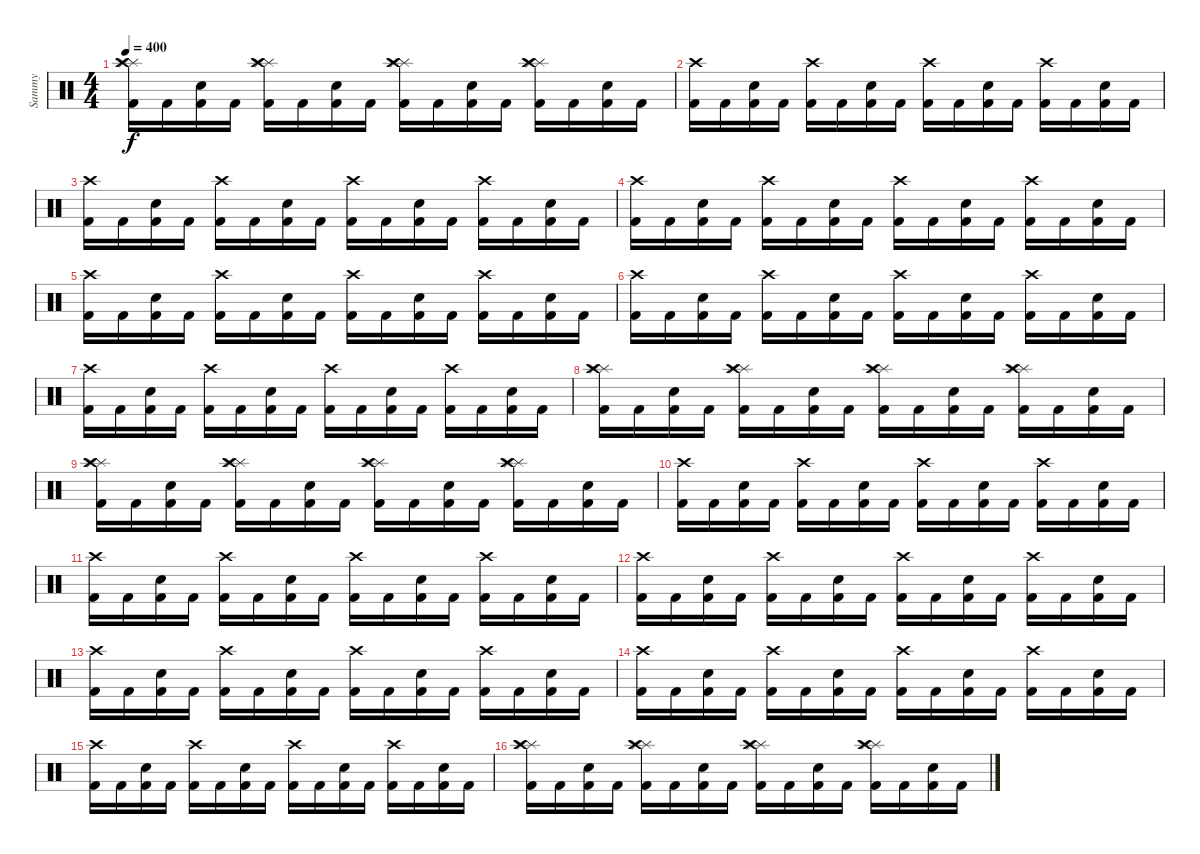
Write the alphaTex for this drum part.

\track ("Sammy" "Sammy") {instrument percussion}
\staff {score}
\articulation defaults
\ts (4 4)
\tempo 400
\clef neutral
\ks c
("Splash (hit)" "Splash (hit)" "Crash high (hit)" "Kick (hit) 2").16{dy f} "Kick (hit) 2".16 ("Electric Snare (hit)" "Kick (hit) 2").16 "Kick (hit) 2".16 ("Splash (hit)" "Splash (hit)" "Crash high (hit)" "Kick (hit) 2").16 "Kick (hit) 2".16 ("Electric Snare (hit)" "Kick (hit) 2").16 "Kick (hit) 2".16 ("Splash (hit)" "Splash (hit)" "Crash high (hit)" "Kick (hit) 2").16 "Kick (hit) 2".16 ("Electric Snare (hit)" "Kick (hit) 2").16 "Kick (hit) 2".16 ("Splash (hit)" "Splash (hit)" "Crash high (hit)" "Kick (hit) 2").16 "Kick (hit) 2".16 ("Electric Snare (hit)" "Kick (hit) 2").16 "Kick (hit) 2".16 |
("Crash high (hit)" "Kick (hit) 2").16 "Kick (hit) 2".16 ("Electric Snare (hit)" "Kick (hit) 2").16 "Kick (hit) 2".16 ("Crash high (hit)" "Kick (hit) 2").16 "Kick (hit) 2".16 ("Electric Snare (hit)" "Kick (hit) 2").16 "Kick (hit) 2".16 ("Crash high (hit)" "Kick (hit) 2").16 "Kick (hit) 2".16 ("Electric Snare (hit)" "Kick (hit) 2").16 "Kick (hit) 2".16 ("Crash high (hit)" "Kick (hit) 2").16 "Kick (hit) 2".16 ("Electric Snare (hit)" "Kick (hit) 2").16 "Kick (hit) 2".16 |
("Crash high (hit)" "Kick (hit) 2").16 "Kick (hit) 2".16 ("Electric Snare (hit)" "Kick (hit) 2").16 "Kick (hit) 2".16 ("Crash high (hit)" "Kick (hit) 2").16 "Kick (hit) 2".16 ("Electric Snare (hit)" "Kick (hit) 2").16 "Kick (hit) 2".16 ("Crash high (hit)" "Kick (hit) 2").16 "Kick (hit) 2".16 ("Electric Snare (hit)" "Kick (hit) 2").16 "Kick (hit) 2".16 ("Crash high (hit)" "Kick (hit) 2").16 "Kick (hit) 2".16 ("Electric Snare (hit)" "Kick (hit) 2").16 "Kick (hit) 2".16 |
("Crash high (hit)" "Kick (hit) 2").16 "Kick (hit) 2".16 ("Electric Snare (hit)" "Kick (hit) 2").16 "Kick (hit) 2".16 ("Crash high (hit)" "Kick (hit) 2").16 "Kick (hit) 2".16 ("Electric Snare (hit)" "Kick (hit) 2").16 "Kick (hit) 2".16 ("Crash high (hit)" "Kick (hit) 2").16 "Kick (hit) 2".16 ("Electric Snare (hit)" "Kick (hit) 2").16 "Kick (hit) 2".16 ("Crash high (hit)" "Kick (hit) 2").16 "Kick (hit) 2".16 ("Electric Snare (hit)" "Kick (hit) 2").16 "Kick (hit) 2".16 |
("Crash high (hit)" "Kick (hit) 2").16 "Kick (hit) 2".16 ("Electric Snare (hit)" "Kick (hit) 2").16 "Kick (hit) 2".16 ("Crash high (hit)" "Kick (hit) 2").16 "Kick (hit) 2".16 ("Electric Snare (hit)" "Kick (hit) 2").16 "Kick (hit) 2".16 ("Crash high (hit)" "Kick (hit) 2").16 "Kick (hit) 2".16 ("Electric Snare (hit)" "Kick (hit) 2").16 "Kick (hit) 2".16 ("Crash high (hit)" "Kick (hit) 2").16 "Kick (hit) 2".16 ("Electric Snare (hit)" "Kick (hit) 2").16 "Kick (hit) 2".16 |
("Crash high (hit)" "Kick (hit) 2").16 "Kick (hit) 2".16 ("Electric Snare (hit)" "Kick (hit) 2").16 "Kick (hit) 2".16 ("Crash high (hit)" "Kick (hit) 2").16 "Kick (hit) 2".16 ("Electric Snare (hit)" "Kick (hit) 2").16 "Kick (hit) 2".16 ("Crash high (hit)" "Kick (hit) 2").16 "Kick (hit) 2".16 ("Electric Snare (hit)" "Kick (hit) 2").16 "Kick (hit) 2".16 ("Crash high (hit)" "Kick (hit) 2").16 "Kick (hit) 2".16 ("Electric Snare (hit)" "Kick (hit) 2").16 "Kick (hit) 2".16 |
("Crash high (hit)" "Kick (hit) 2").16 "Kick (hit) 2".16 ("Electric Snare (hit)" "Kick (hit) 2").16 "Kick (hit) 2".16 ("Crash high (hit)" "Kick (hit) 2").16 "Kick (hit) 2".16 ("Electric Snare (hit)" "Kick (hit) 2").16 "Kick (hit) 2".16 ("Crash high (hit)" "Kick (hit) 2").16 "Kick (hit) 2".16 ("Electric Snare (hit)" "Kick (hit) 2").16 "Kick (hit) 2".16 ("Crash high (hit)" "Kick (hit) 2").16 "Kick (hit) 2".16 ("Electric Snare (hit)" "Kick (hit) 2").16 "Kick (hit) 2".16 |
("Splash (hit)" "Splash (hit)" "Crash high (hit)" "Kick (hit) 2").16 "Kick (hit) 2".16 ("Electric Snare (hit)" "Kick (hit) 2").16 "Kick (hit) 2".16 ("Splash (hit)" "Splash (hit)" "Crash high (hit)" "Kick (hit) 2").16 "Kick (hit) 2".16 ("Electric Snare (hit)" "Kick (hit) 2").16 "Kick (hit) 2".16 ("Splash (hit)" "Splash (hit)" "Crash high (hit)" "Kick (hit) 2").16 "Kick (hit) 2".16 ("Electric Snare (hit)" "Kick (hit) 2").16 "Kick (hit) 2".16 ("Splash (hit)" "Splash (hit)" "Crash high (hit)" "Kick (hit) 2").16 "Kick (hit) 2".16 ("Electric Snare (hit)" "Kick (hit) 2").16 "Kick (hit) 2".16 |
("Splash (hit)" "Splash (hit)" "Crash high (hit)" "Kick (hit) 2").16 "Kick (hit) 2".16 ("Electric Snare (hit)" "Kick (hit) 2").16 "Kick (hit) 2".16 ("Splash (hit)" "Splash (hit)" "Crash high (hit)" "Kick (hit) 2").16 "Kick (hit) 2".16 ("Electric Snare (hit)" "Kick (hit) 2").16 "Kick (hit) 2".16 ("Splash (hit)" "Splash (hit)" "Crash high (hit)" "Kick (hit) 2").16 "Kick (hit) 2".16 ("Electric Snare (hit)" "Kick (hit) 2").16 "Kick (hit) 2".16 ("Splash (hit)" "Splash (hit)" "Crash high (hit)" "Kick (hit) 2").16 "Kick (hit) 2".16 ("Electric Snare (hit)" "Kick (hit) 2").16 "Kick (hit) 2".16 |
("Crash high (hit)" "Kick (hit) 2").16 "Kick (hit) 2".16 ("Electric Snare (hit)" "Kick (hit) 2").16 "Kick (hit) 2".16 ("Crash high (hit)" "Kick (hit) 2").16 "Kick (hit) 2".16 ("Electric Snare (hit)" "Kick (hit) 2").16 "Kick (hit) 2".16 ("Crash high (hit)" "Kick (hit) 2").16 "Kick (hit) 2".16 ("Electric Snare (hit)" "Kick (hit) 2").16 "Kick (hit) 2".16 ("Crash high (hit)" "Kick (hit) 2").16 "Kick (hit) 2".16 ("Electric Snare (hit)" "Kick (hit) 2").16 "Kick (hit) 2".16 |
("Crash high (hit)" "Kick (hit) 2").16 "Kick (hit) 2".16 ("Electric Snare (hit)" "Kick (hit) 2").16 "Kick (hit) 2".16 ("Crash high (hit)" "Kick (hit) 2").16 "Kick (hit) 2".16 ("Electric Snare (hit)" "Kick (hit) 2").16 "Kick (hit) 2".16 ("Crash high (hit)" "Kick (hit) 2").16 "Kick (hit) 2".16 ("Electric Snare (hit)" "Kick (hit) 2").16 "Kick (hit) 2".16 ("Crash high (hit)" "Kick (hit) 2").16 "Kick (hit) 2".16 ("Electric Snare (hit)" "Kick (hit) 2").16 "Kick (hit) 2".16 |
("Crash high (hit)" "Kick (hit) 2").16 "Kick (hit) 2".16 ("Electric Snare (hit)" "Kick (hit) 2").16 "Kick (hit) 2".16 ("Crash high (hit)" "Kick (hit) 2").16 "Kick (hit) 2".16 ("Electric Snare (hit)" "Kick (hit) 2").16 "Kick (hit) 2".16 ("Crash high (hit)" "Kick (hit) 2").16 "Kick (hit) 2".16 ("Electric Snare (hit)" "Kick (hit) 2").16 "Kick (hit) 2".16 ("Crash high (hit)" "Kick (hit) 2").16 "Kick (hit) 2".16 ("Electric Snare (hit)" "Kick (hit) 2").16 "Kick (hit) 2".16 |
("Crash high (hit)" "Kick (hit) 2").16 "Kick (hit) 2".16 ("Electric Snare (hit)" "Kick (hit) 2").16 "Kick (hit) 2".16 ("Crash high (hit)" "Kick (hit) 2").16 "Kick (hit) 2".16 ("Electric Snare (hit)" "Kick (hit) 2").16 "Kick (hit) 2".16 ("Crash high (hit)" "Kick (hit) 2").16 "Kick (hit) 2".16 ("Electric Snare (hit)" "Kick (hit) 2").16 "Kick (hit) 2".16 ("Crash high (hit)" "Kick (hit) 2").16 "Kick (hit) 2".16 ("Electric Snare (hit)" "Kick (hit) 2").16 "Kick (hit) 2".16 |
("Crash high (hit)" "Kick (hit) 2").16 "Kick (hit) 2".16 ("Electric Snare (hit)" "Kick (hit) 2").16 "Kick (hit) 2".16 ("Crash high (hit)" "Kick (hit) 2").16 "Kick (hit) 2".16 ("Electric Snare (hit)" "Kick (hit) 2").16 "Kick (hit) 2".16 ("Crash high (hit)" "Kick (hit) 2").16 "Kick (hit) 2".16 ("Electric Snare (hit)" "Kick (hit) 2").16 "Kick (hit) 2".16 ("Crash high (hit)" "Kick (hit) 2").16 "Kick (hit) 2".16 ("Electric Snare (hit)" "Kick (hit) 2").16 "Kick (hit) 2".16 |
("Crash high (hit)" "Kick (hit) 2").16 "Kick (hit) 2".16 ("Electric Snare (hit)" "Kick (hit) 2").16 "Kick (hit) 2".16 ("Crash high (hit)" "Kick (hit) 2").16 "Kick (hit) 2".16 ("Electric Snare (hit)" "Kick (hit) 2").16 "Kick (hit) 2".16 ("Crash high (hit)" "Kick (hit) 2").16 "Kick (hit) 2".16 ("Electric Snare (hit)" "Kick (hit) 2").16 "Kick (hit) 2".16 ("Crash high (hit)" "Kick (hit) 2").16 "Kick (hit) 2".16 ("Electric Snare (hit)" "Kick (hit) 2").16 "Kick (hit) 2".16 |
("Splash (hit)" "Splash (hit)" "Crash high (hit)" "Kick (hit) 2").16 "Kick (hit) 2".16 ("Electric Snare (hit)" "Kick (hit) 2").16 "Kick (hit) 2".16 ("Splash (hit)" "Splash (hit)" "Crash high (hit)" "Kick (hit) 2").16 "Kick (hit) 2".16 ("Electric Snare (hit)" "Kick (hit) 2").16 "Kick (hit) 2".16 ("Splash (hit)" "Splash (hit)" "Crash high (hit)" "Kick (hit) 2").16 "Kick (hit) 2".16 ("Electric Snare (hit)" "Kick (hit) 2").16 "Kick (hit) 2".16 ("Splash (hit)" "Splash (hit)" "Crash high (hit)" "Kick (hit) 2").16 "Kick (hit) 2".16 ("Electric Snare (hit)" "Kick (hit) 2").16 "Kick (hit) 2".16
